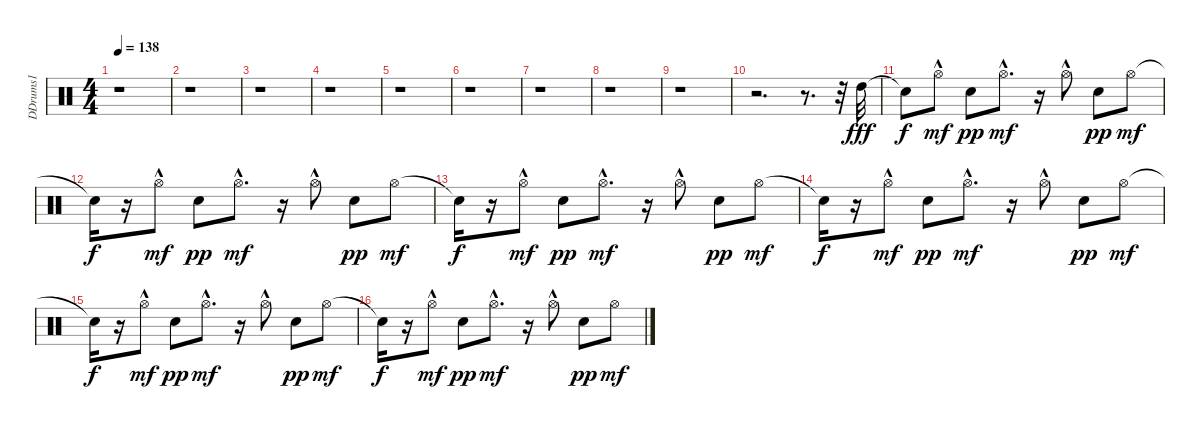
\track ("DDrums1" "DDrums1") {instrument percussion}
\staff {score}
\articulation defaults
\ts (4 4)
\tempo 138
\clef neutral
\ks c
r.1{dy fff} |
r.1 |
r.1 |
r.1 |
r.1 |
r.1 |
r.1 |
r.1 |
r.1 |
r.2{d} r.8{d} r.32 "High Tom (hit)".32 |
"Snare (hit)"{t}.8{dy f} "Hi-Hat (open)"{hac}.8{dy mf} "Electric Snare (hit)".8{dy pp} "Hi-Hat (open)"{hac}.8{d dy mf} r.16 "Hi-Hat (open)"{hac}.8 "Electric Snare (hit)".8{dy pp} "Hi-Hat (open)".8{dy mf} |
"Snare (hit)"{t}.16{dy f} r.16 "Hi-Hat (open)"{hac}.8{dy mf} "Electric Snare (hit)".8{dy pp} "Hi-Hat (open)"{hac}.8{d dy mf} r.16 "Hi-Hat (open)"{hac}.8 "Electric Snare (hit)".8{dy pp} "Hi-Hat (open)".8{dy mf} |
"Snare (hit)"{t}.16{dy f} r.16 "Hi-Hat (open)"{hac}.8{dy mf} "Electric Snare (hit)".8{dy pp} "Hi-Hat (open)"{hac}.8{d dy mf} r.16 "Hi-Hat (open)"{hac}.8 "Electric Snare (hit)".8{dy pp} "Hi-Hat (open)".8{dy mf} |
"Snare (hit)"{t}.16{dy f} r.16 "Hi-Hat (open)"{hac}.8{dy mf} "Electric Snare (hit)".8{dy pp} "Hi-Hat (open)"{hac}.8{d dy mf} r.16 "Hi-Hat (open)"{hac}.8 "Electric Snare (hit)".8{dy pp} "Hi-Hat (open)".8{dy mf} |
"Snare (hit)"{t}.16{dy f} r.16 "Hi-Hat (open)"{hac}.8{dy mf} "Electric Snare (hit)".8{dy pp} "Hi-Hat (open)"{hac}.8{d dy mf} r.16 "Hi-Hat (open)"{hac}.8 "Electric Snare (hit)".8{dy pp} "Hi-Hat (open)".8{dy mf} |
"Snare (hit)"{t}.16{dy f} r.16 "Hi-Hat (open)"{hac}.8{dy mf} "Electric Snare (hit)".8{dy pp} "Hi-Hat (open)"{hac}.8{d dy mf} r.16 "Hi-Hat (open)"{hac}.8 "Electric Snare (hit)".8{dy pp} "Hi-Hat (open)".8{dy mf}
